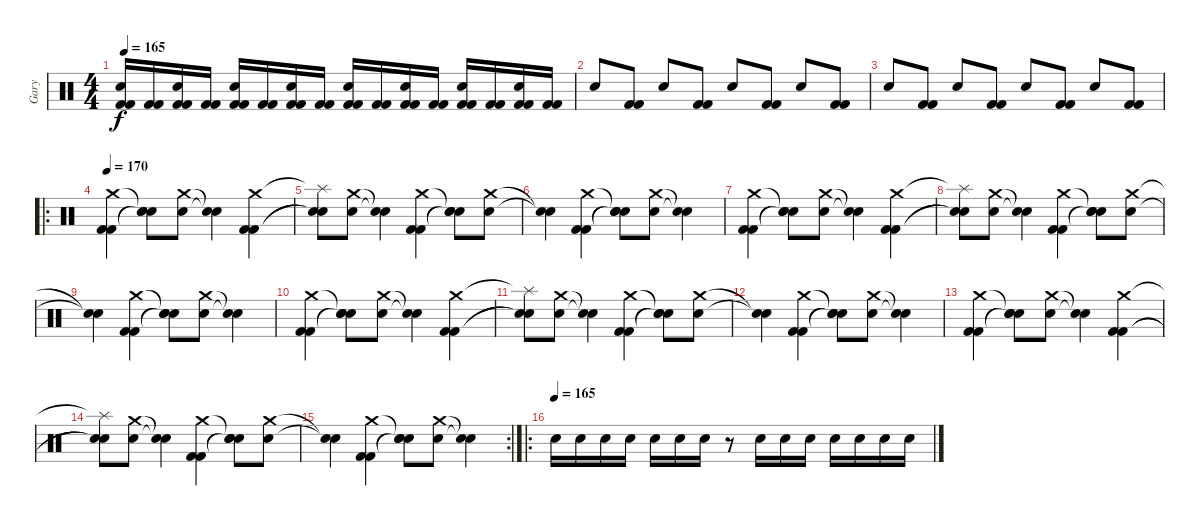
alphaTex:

\track ("Gary" "Gary") {instrument percussion}
\staff {score}
\articulation defaults
\ts (4 4)
\tempo 165
\clef neutral
\ks c
("Kick (hit) 2" "Snare (hit) 2" "Kick (hit) 2").16{dy f} ("Kick (hit) 2" "Kick (hit) 2").16 ("Kick (hit) 2" "Snare (hit) 2" "Kick (hit) 2").16 ("Kick (hit) 2" "Kick (hit) 2").16 ("Kick (hit) 2" "Snare (hit) 2" "Kick (hit) 2").16 ("Kick (hit) 2" "Kick (hit) 2").16 ("Kick (hit) 2" "Snare (hit) 2" "Kick (hit) 2").16 ("Kick (hit) 2" "Kick (hit) 2").16 ("Kick (hit) 2" "Snare (hit) 2" "Kick (hit) 2").16 ("Kick (hit) 2" "Kick (hit) 2").16 ("Kick (hit) 2" "Snare (hit) 2" "Kick (hit) 2").16 ("Kick (hit) 2" "Kick (hit) 2").16 ("Kick (hit) 2" "Snare (hit) 2" "Kick (hit) 2").16 ("Kick (hit) 2" "Kick (hit) 2").16 ("Kick (hit) 2" "Snare (hit) 2" "Kick (hit) 2").16 ("Kick (hit) 2" "Kick (hit) 2").16 |
"Snare (hit) 2".8 ("Kick (hit) 2" "Kick (hit) 2").8 "Snare (hit) 2".8 ("Kick (hit) 2" "Kick (hit) 2").8 "Snare (hit) 2".8 ("Kick (hit) 2" "Kick (hit) 2").8 "Snare (hit) 2".8 ("Kick (hit) 2" "Kick (hit) 2").8 |
"Snare (hit) 2".8 ("Kick (hit) 2" "Kick (hit) 2").8 "Snare (hit) 2".8 ("Kick (hit) 2" "Kick (hit) 2").8 "Snare (hit) 2".8 ("Kick (hit) 2" "Kick (hit) 2").8 "Snare (hit) 2".8 ("Kick (hit) 2" "Kick (hit) 2").8 |
\ro
\tempo 170
("Crash medium (hit)" "Kick (hit) 2" "Kick (hit) 2").4 ("Snare (hit)"{t} "Snare (hit)"{t} "Snare (hit)"{t}).8 ("Crash medium (hit)" "Snare (hit) 2").8 ("Snare (hit)"{t} "Snare (hit)"{t}).4 ("Crash medium (hit)" "Kick (hit) 2" "Kick (hit) 2").4 |
("Splash (hit)"{t} "Snare (hit)"{t} "Snare (hit)"{t}).8 ("Crash medium (hit)" "Snare (hit) 2").8 ("Snare (hit)"{t} "Snare (hit)"{t}).4 ("Crash medium (hit)" "Kick (hit) 2" "Kick (hit) 2").4 ("Snare (hit)"{t} "Snare (hit)"{t} "Snare (hit)"{t}).8 ("Crash medium (hit)" "Snare (hit) 2").8 |
("Snare (hit)"{t} "Snare (hit)"{t}).4 ("Crash medium (hit)" "Kick (hit) 2" "Kick (hit) 2").4 ("Snare (hit)"{t} "Snare (hit)"{t} "Snare (hit)"{t}).8 ("Crash medium (hit)" "Snare (hit) 2").8 ("Snare (hit)"{t} "Snare (hit)"{t}).4 |
("Crash medium (hit)" "Kick (hit) 2" "Kick (hit) 2").4 ("Snare (hit)"{t} "Snare (hit)"{t} "Snare (hit)"{t}).8 ("Crash medium (hit)" "Snare (hit) 2").8 ("Snare (hit)"{t} "Snare (hit)"{t}).4 ("Crash medium (hit)" "Kick (hit) 2" "Kick (hit) 2").4 |
("Splash (hit)"{t} "Snare (hit)"{t} "Snare (hit)"{t}).8 ("Crash medium (hit)" "Snare (hit) 2").8 ("Snare (hit)"{t} "Snare (hit)"{t}).4 ("Crash medium (hit)" "Kick (hit) 2" "Kick (hit) 2").4 ("Snare (hit)"{t} "Snare (hit)"{t} "Snare (hit)"{t}).8 ("Crash medium (hit)" "Snare (hit) 2").8 |
("Snare (hit)"{t} "Snare (hit)"{t}).4 ("Crash medium (hit)" "Kick (hit) 2" "Kick (hit) 2").4 ("Snare (hit)"{t} "Snare (hit)"{t} "Snare (hit)"{t}).8 ("Crash medium (hit)" "Snare (hit) 2").8 ("Snare (hit)"{t} "Snare (hit)"{t}).4 |
("Crash medium (hit)" "Kick (hit) 2" "Kick (hit) 2").4 ("Snare (hit)"{t} "Snare (hit)"{t} "Snare (hit)"{t}).8 ("Crash medium (hit)" "Snare (hit) 2").8 ("Snare (hit)"{t} "Snare (hit)"{t}).4 ("Crash medium (hit)" "Kick (hit) 2" "Kick (hit) 2").4 |
("Splash (hit)"{t} "Snare (hit)"{t} "Snare (hit)"{t}).8 ("Crash medium (hit)" "Snare (hit) 2").8 ("Snare (hit)"{t} "Snare (hit)"{t}).4 ("Crash medium (hit)" "Kick (hit) 2" "Kick (hit) 2").4 ("Snare (hit)"{t} "Snare (hit)"{t} "Snare (hit)"{t}).8 ("Crash medium (hit)" "Snare (hit) 2").8 |
("Snare (hit)"{t} "Snare (hit)"{t}).4 ("Crash medium (hit)" "Kick (hit) 2" "Kick (hit) 2").4 ("Snare (hit)"{t} "Snare (hit)"{t} "Snare (hit)"{t}).8 ("Crash medium (hit)" "Snare (hit) 2").8 ("Snare (hit)"{t} "Snare (hit)"{t}).4 |
("Crash medium (hit)" "Kick (hit) 2" "Kick (hit) 2").4 ("Snare (hit)"{t} "Snare (hit)"{t} "Snare (hit)"{t}).8 ("Crash medium (hit)" "Snare (hit) 2").8 ("Snare (hit)"{t} "Snare (hit)"{t}).4 ("Crash medium (hit)" "Kick (hit) 2" "Kick (hit) 2").4 |
("Splash (hit)"{t} "Snare (hit)"{t} "Snare (hit)"{t}).8 ("Crash medium (hit)" "Snare (hit) 2").8 ("Snare (hit)"{t} "Snare (hit)"{t}).4 ("Crash medium (hit)" "Kick (hit) 2" "Kick (hit) 2").4 ("Snare (hit)"{t} "Snare (hit)"{t} "Snare (hit)"{t}).8 ("Crash medium (hit)" "Snare (hit) 2").8 |
\rc 2
("Snare (hit)"{t} "Snare (hit)"{t}).4 ("Crash medium (hit)" "Kick (hit) 2" "Kick (hit) 2").4 ("Snare (hit)"{t} "Snare (hit)"{t} "Snare (hit)"{t}).8 ("Crash medium (hit)" "Snare (hit) 2").8 ("Snare (hit)"{t} "Snare (hit)"{t}).4 |
\ro
\tempo (165)
"Snare (hit) 2".16 "Snare (hit) 2".16 "Snare (hit) 2".16 "Snare (hit) 2".16 "Snare (hit) 2".16 "Snare (hit) 2".16 "Snare (hit) 2".16 r.8 "Snare (hit) 2".16 "Snare (hit) 2".16 "Snare (hit) 2".16 "Snare (hit) 2".16 "Snare (hit) 2".16 "Snare (hit) 2".16 "Snare (hit) 2".16
